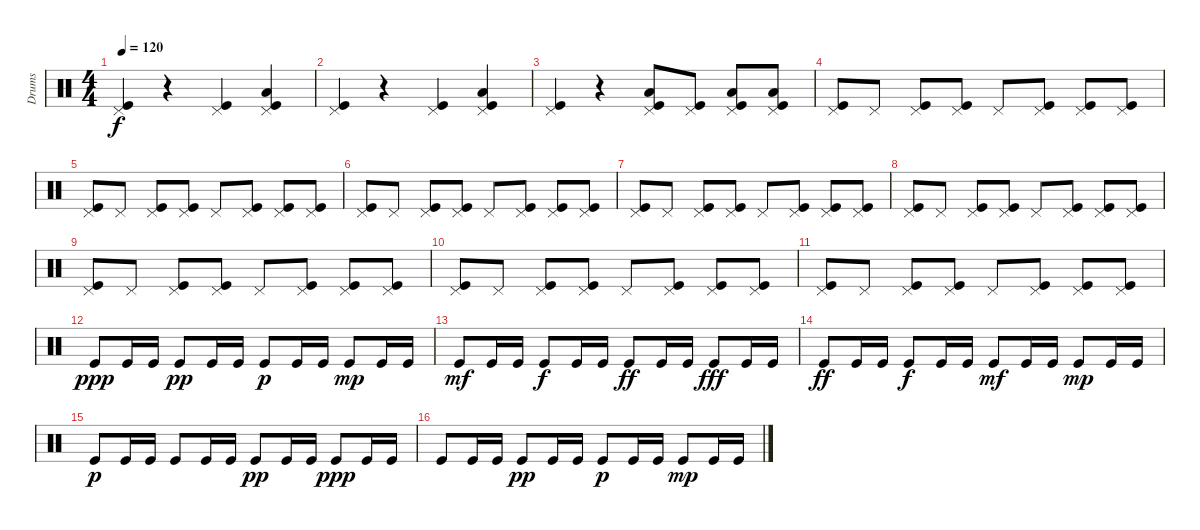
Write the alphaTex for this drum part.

\track ("Drums" "Drums") {instrument percussion}
\staff {score}
\articulation defaults
\ts (4 4)
\tempo 120
\clef neutral
\ks c
("Pedal Hi-Hat (hit)" "Kick (hit)").4{dy f} r.4 ("Pedal Hi-Hat (hit)" "Kick (hit)").4 ("Pedal Hi-Hat (hit)" "Low Tom (hit)" "Kick (hit)").4 |
("Pedal Hi-Hat (hit)" "Kick (hit)").4 r.4 ("Pedal Hi-Hat (hit)" "Kick (hit)").4 ("Pedal Hi-Hat (hit)" "Low Tom (hit)" "Kick (hit)").4 |
("Pedal Hi-Hat (hit)" "Kick (hit)").4 r.4 ("Pedal Hi-Hat (hit)" "Low Tom (hit)" "Kick (hit)").8 ("Pedal Hi-Hat (hit)" "Kick (hit)").8 ("Pedal Hi-Hat (hit)" "Low Tom (hit)" "Kick (hit)").8 ("Pedal Hi-Hat (hit)" "Low Tom (hit)" "Kick (hit)").8 |
("Pedal Hi-Hat (hit)" "Kick (hit)").8 "Pedal Hi-Hat (hit)".8 ("Pedal Hi-Hat (hit)" "Kick (hit)").8 ("Pedal Hi-Hat (hit)" "Kick (hit)").8 "Pedal Hi-Hat (hit)".8 ("Pedal Hi-Hat (hit)" "Kick (hit)").8 ("Pedal Hi-Hat (hit)" "Kick (hit)").8 ("Pedal Hi-Hat (hit)" "Kick (hit)").8 |
("Pedal Hi-Hat (hit)" "Kick (hit)").8 "Pedal Hi-Hat (hit)".8 ("Pedal Hi-Hat (hit)" "Kick (hit)").8 ("Pedal Hi-Hat (hit)" "Kick (hit)").8 "Pedal Hi-Hat (hit)".8 ("Pedal Hi-Hat (hit)" "Kick (hit)").8 ("Pedal Hi-Hat (hit)" "Kick (hit)").8 ("Pedal Hi-Hat (hit)" "Kick (hit)").8 |
("Pedal Hi-Hat (hit)" "Kick (hit)").8 "Pedal Hi-Hat (hit)".8 ("Pedal Hi-Hat (hit)" "Kick (hit)").8 ("Pedal Hi-Hat (hit)" "Kick (hit)").8 "Pedal Hi-Hat (hit)".8 ("Pedal Hi-Hat (hit)" "Kick (hit)").8 ("Pedal Hi-Hat (hit)" "Kick (hit)").8 ("Pedal Hi-Hat (hit)" "Kick (hit)").8 |
("Pedal Hi-Hat (hit)" "Kick (hit)").8 "Pedal Hi-Hat (hit)".8 ("Pedal Hi-Hat (hit)" "Kick (hit)").8 ("Pedal Hi-Hat (hit)" "Kick (hit)").8 "Pedal Hi-Hat (hit)".8 ("Pedal Hi-Hat (hit)" "Kick (hit)").8 ("Pedal Hi-Hat (hit)" "Kick (hit)").8 ("Pedal Hi-Hat (hit)" "Kick (hit)").8 |
("Pedal Hi-Hat (hit)" "Kick (hit)").8 "Pedal Hi-Hat (hit)".8 ("Pedal Hi-Hat (hit)" "Kick (hit)").8 ("Pedal Hi-Hat (hit)" "Kick (hit)").8 "Pedal Hi-Hat (hit)".8 ("Pedal Hi-Hat (hit)" "Kick (hit)").8 ("Pedal Hi-Hat (hit)" "Kick (hit)").8 ("Pedal Hi-Hat (hit)" "Kick (hit)").8 |
("Pedal Hi-Hat (hit)" "Kick (hit)").8 "Pedal Hi-Hat (hit)".8 ("Pedal Hi-Hat (hit)" "Kick (hit)").8 ("Pedal Hi-Hat (hit)" "Kick (hit)").8 "Pedal Hi-Hat (hit)".8 ("Pedal Hi-Hat (hit)" "Kick (hit)").8 ("Pedal Hi-Hat (hit)" "Kick (hit)").8 ("Pedal Hi-Hat (hit)" "Kick (hit)").8 |
("Pedal Hi-Hat (hit)" "Kick (hit)").8 "Pedal Hi-Hat (hit)".8 ("Pedal Hi-Hat (hit)" "Kick (hit)").8 ("Pedal Hi-Hat (hit)" "Kick (hit)").8 "Pedal Hi-Hat (hit)".8 ("Pedal Hi-Hat (hit)" "Kick (hit)").8 ("Pedal Hi-Hat (hit)" "Kick (hit)").8 ("Pedal Hi-Hat (hit)" "Kick (hit)").8 |
("Pedal Hi-Hat (hit)" "Kick (hit)").8 "Pedal Hi-Hat (hit)".8 ("Pedal Hi-Hat (hit)" "Kick (hit)").8 ("Pedal Hi-Hat (hit)" "Kick (hit)").8 "Pedal Hi-Hat (hit)".8 ("Pedal Hi-Hat (hit)" "Kick (hit)").8 ("Pedal Hi-Hat (hit)" "Kick (hit)").8 ("Pedal Hi-Hat (hit)" "Kick (hit)").8 |
"Kick (hit)".8{dy ppp} "Kick (hit)".16 "Kick (hit)".16 "Kick (hit)".8{dy pp} "Kick (hit)".16 "Kick (hit)".16 "Kick (hit)".8{dy p} "Kick (hit)".16 "Kick (hit)".16 "Kick (hit)".8{dy mp} "Kick (hit)".16 "Kick (hit)".16 |
"Kick (hit)".8{dy mf} "Kick (hit)".16 "Kick (hit)".16 "Kick (hit)".8{dy f} "Kick (hit)".16 "Kick (hit)".16 "Kick (hit)".8{dy ff} "Kick (hit)".16 "Kick (hit)".16 "Kick (hit)".8{dy fff} "Kick (hit)".16 "Kick (hit)".16 |
"Kick (hit)".8{dy ff} "Kick (hit)".16 "Kick (hit)".16 "Kick (hit)".8{dy f} "Kick (hit)".16 "Kick (hit)".16 "Kick (hit)".8{dy mf} "Kick (hit)".16 "Kick (hit)".16 "Kick (hit)".8{dy mp} "Kick (hit)".16 "Kick (hit)".16 |
"Kick (hit)".8{dy p} "Kick (hit)".16 "Kick (hit)".16 "Kick (hit)".8 "Kick (hit)".16 "Kick (hit)".16 "Kick (hit)".8{dy pp} "Kick (hit)".16 "Kick (hit)".16 "Kick (hit)".8{dy ppp} "Kick (hit)".16 "Kick (hit)".16 |
"Kick (hit)".8 "Kick (hit)".16 "Kick (hit)".16 "Kick (hit)".8{dy pp} "Kick (hit)".16 "Kick (hit)".16 "Kick (hit)".8{dy p} "Kick (hit)".16 "Kick (hit)".16 "Kick (hit)".8{dy mp} "Kick (hit)".16 "Kick (hit)".16
